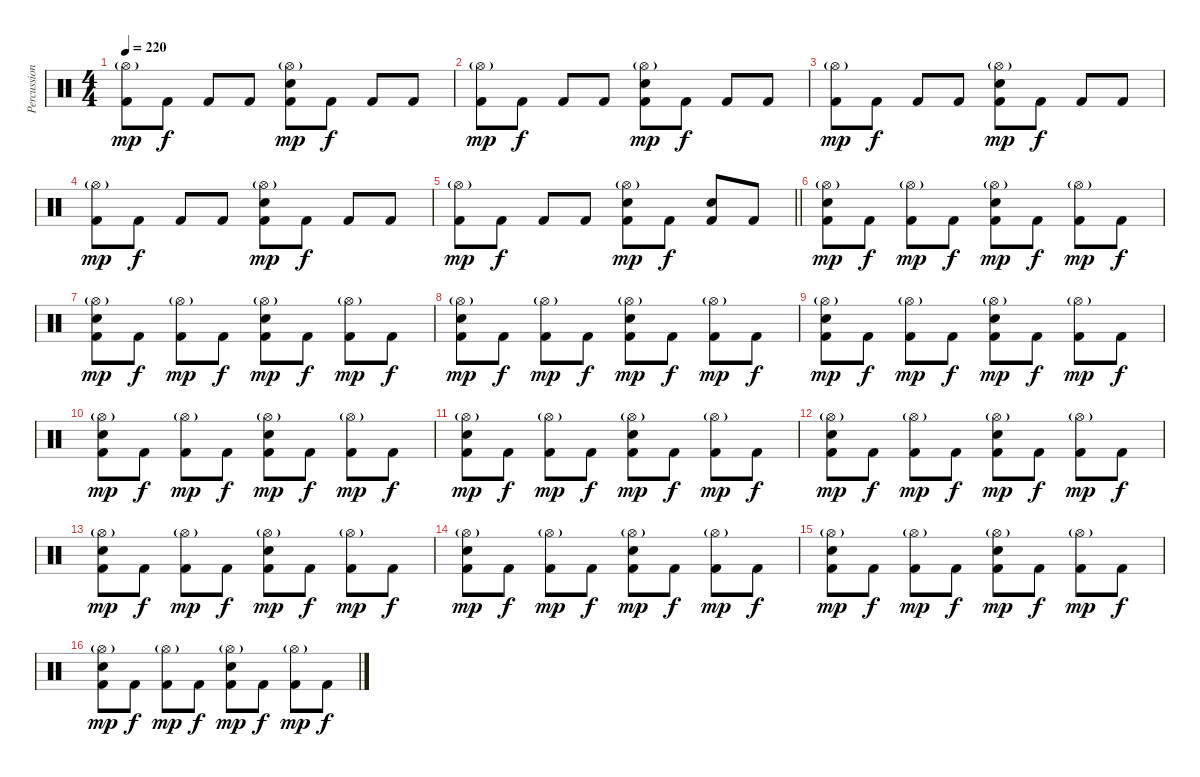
\track ("Percussions" "Percussion") {instrument percussion}
\staff {score}
\articulation defaults
\ts (4 4)
\tempo 220
\clef neutral
\ks c
("Hi-Hat (open)"{g} "Kick (hit) 2").8{dy mp} "Kick (hit) 2".8{dy f} "Kick (hit) 2".8 "Kick (hit) 2".8 ("Hi-Hat (open)"{g} "Electric Snare (hit)" "Kick (hit) 2").8{dy mp} "Kick (hit) 2".8{dy f} "Kick (hit) 2".8 "Kick (hit) 2".8 |
("Hi-Hat (open)"{g} "Kick (hit) 2").8{dy mp} "Kick (hit) 2".8{dy f} "Kick (hit) 2".8 "Kick (hit) 2".8 ("Hi-Hat (open)"{g} "Electric Snare (hit)" "Kick (hit) 2").8{dy mp} "Kick (hit) 2".8{dy f} "Kick (hit) 2".8 "Kick (hit) 2".8 |
("Hi-Hat (open)"{g} "Kick (hit) 2").8{dy mp} "Kick (hit) 2".8{dy f} "Kick (hit) 2".8 "Kick (hit) 2".8 ("Hi-Hat (open)"{g} "Electric Snare (hit)" "Kick (hit) 2").8{dy mp} "Kick (hit) 2".8{dy f} "Kick (hit) 2".8 "Kick (hit) 2".8 |
("Hi-Hat (open)"{g} "Kick (hit) 2").8{dy mp} "Kick (hit) 2".8{dy f} "Kick (hit) 2".8 "Kick (hit) 2".8 ("Hi-Hat (open)"{g} "Electric Snare (hit)" "Kick (hit) 2").8{dy mp} "Kick (hit) 2".8{dy f} "Kick (hit) 2".8 "Kick (hit) 2".8 |
\barLineRight lightlight
("Hi-Hat (open)"{g} "Kick (hit) 2").8{dy mp} "Kick (hit) 2".8{dy f} "Kick (hit) 2".8 "Kick (hit) 2".8 ("Hi-Hat (open)"{g} "Electric Snare (hit)" "Kick (hit) 2").8{dy mp} "Kick (hit) 2".8{dy f} ("Electric Snare (hit)" "Kick (hit) 2").8 "Kick (hit) 2".8 |
("Hi-Hat (open)"{g} "Electric Snare (hit)" "Kick (hit) 2").8{dy mp} "Kick (hit) 2".8{dy f} ("Hi-Hat (open)"{g} "Kick (hit) 2").8{dy mp} "Kick (hit) 2".8{dy f} ("Hi-Hat (open)"{g} "Electric Snare (hit)" "Kick (hit) 2").8{dy mp} "Kick (hit) 2".8{dy f} ("Hi-Hat (open)"{g} "Kick (hit) 2").8{dy mp} "Kick (hit) 2".8{dy f} |
("Hi-Hat (open)"{g} "Electric Snare (hit)" "Kick (hit) 2").8{dy mp} "Kick (hit) 2".8{dy f} ("Hi-Hat (open)"{g} "Kick (hit) 2").8{dy mp} "Kick (hit) 2".8{dy f} ("Hi-Hat (open)"{g} "Electric Snare (hit)" "Kick (hit) 2").8{dy mp} "Kick (hit) 2".8{dy f} ("Hi-Hat (open)"{g} "Kick (hit) 2").8{dy mp} "Kick (hit) 2".8{dy f} |
("Hi-Hat (open)"{g} "Electric Snare (hit)" "Kick (hit) 2").8{dy mp} "Kick (hit) 2".8{dy f} ("Hi-Hat (open)"{g} "Kick (hit) 2").8{dy mp} "Kick (hit) 2".8{dy f} ("Hi-Hat (open)"{g} "Electric Snare (hit)" "Kick (hit) 2").8{dy mp} "Kick (hit) 2".8{dy f} ("Hi-Hat (open)"{g} "Kick (hit) 2").8{dy mp} "Kick (hit) 2".8{dy f} |
("Hi-Hat (open)"{g} "Electric Snare (hit)" "Kick (hit) 2").8{dy mp} "Kick (hit) 2".8{dy f} ("Hi-Hat (open)"{g} "Kick (hit) 2").8{dy mp} "Kick (hit) 2".8{dy f} ("Hi-Hat (open)"{g} "Electric Snare (hit)" "Kick (hit) 2").8{dy mp} "Kick (hit) 2".8{dy f} ("Hi-Hat (open)"{g} "Kick (hit) 2").8{dy mp} "Kick (hit) 2".8{dy f} |
("Hi-Hat (open)"{g} "Electric Snare (hit)" "Kick (hit) 2").8{dy mp} "Kick (hit) 2".8{dy f} ("Hi-Hat (open)"{g} "Kick (hit) 2").8{dy mp} "Kick (hit) 2".8{dy f} ("Hi-Hat (open)"{g} "Electric Snare (hit)" "Kick (hit) 2").8{dy mp} "Kick (hit) 2".8{dy f} ("Hi-Hat (open)"{g} "Kick (hit) 2").8{dy mp} "Kick (hit) 2".8{dy f} |
("Hi-Hat (open)"{g} "Electric Snare (hit)" "Kick (hit) 2").8{dy mp} "Kick (hit) 2".8{dy f} ("Hi-Hat (open)"{g} "Kick (hit) 2").8{dy mp} "Kick (hit) 2".8{dy f} ("Hi-Hat (open)"{g} "Electric Snare (hit)" "Kick (hit) 2").8{dy mp} "Kick (hit) 2".8{dy f} ("Hi-Hat (open)"{g} "Kick (hit) 2").8{dy mp} "Kick (hit) 2".8{dy f} |
("Hi-Hat (open)"{g} "Electric Snare (hit)" "Kick (hit) 2").8{dy mp} "Kick (hit) 2".8{dy f} ("Hi-Hat (open)"{g} "Kick (hit) 2").8{dy mp} "Kick (hit) 2".8{dy f} ("Hi-Hat (open)"{g} "Electric Snare (hit)" "Kick (hit) 2").8{dy mp} "Kick (hit) 2".8{dy f} ("Hi-Hat (open)"{g} "Kick (hit) 2").8{dy mp} "Kick (hit) 2".8{dy f} |
("Hi-Hat (open)"{g} "Electric Snare (hit)" "Kick (hit) 2").8{dy mp} "Kick (hit) 2".8{dy f} ("Hi-Hat (open)"{g} "Kick (hit) 2").8{dy mp} "Kick (hit) 2".8{dy f} ("Hi-Hat (open)"{g} "Electric Snare (hit)" "Kick (hit) 2").8{dy mp} "Kick (hit) 2".8{dy f} ("Hi-Hat (open)"{g} "Kick (hit) 2").8{dy mp} "Kick (hit) 2".8{dy f} |
("Hi-Hat (open)"{g} "Electric Snare (hit)" "Kick (hit) 2").8{dy mp} "Kick (hit) 2".8{dy f} ("Hi-Hat (open)"{g} "Kick (hit) 2").8{dy mp} "Kick (hit) 2".8{dy f} ("Hi-Hat (open)"{g} "Electric Snare (hit)" "Kick (hit) 2").8{dy mp} "Kick (hit) 2".8{dy f} ("Hi-Hat (open)"{g} "Kick (hit) 2").8{dy mp} "Kick (hit) 2".8{dy f} |
("Hi-Hat (open)"{g} "Electric Snare (hit)" "Kick (hit) 2").8{dy mp} "Kick (hit) 2".8{dy f} ("Hi-Hat (open)"{g} "Kick (hit) 2").8{dy mp} "Kick (hit) 2".8{dy f} ("Hi-Hat (open)"{g} "Electric Snare (hit)" "Kick (hit) 2").8{dy mp} "Kick (hit) 2".8{dy f} ("Hi-Hat (open)"{g} "Kick (hit) 2").8{dy mp} "Kick (hit) 2".8{dy f} |
("Hi-Hat (open)"{g} "Electric Snare (hit)" "Kick (hit) 2").8{dy mp} "Kick (hit) 2".8{dy f} ("Hi-Hat (open)"{g} "Kick (hit) 2").8{dy mp} "Kick (hit) 2".8{dy f} ("Hi-Hat (open)"{g} "Electric Snare (hit)" "Kick (hit) 2").8{dy mp} "Kick (hit) 2".8{dy f} ("Hi-Hat (open)"{g} "Kick (hit) 2").8{dy mp} "Kick (hit) 2".8{dy f}
